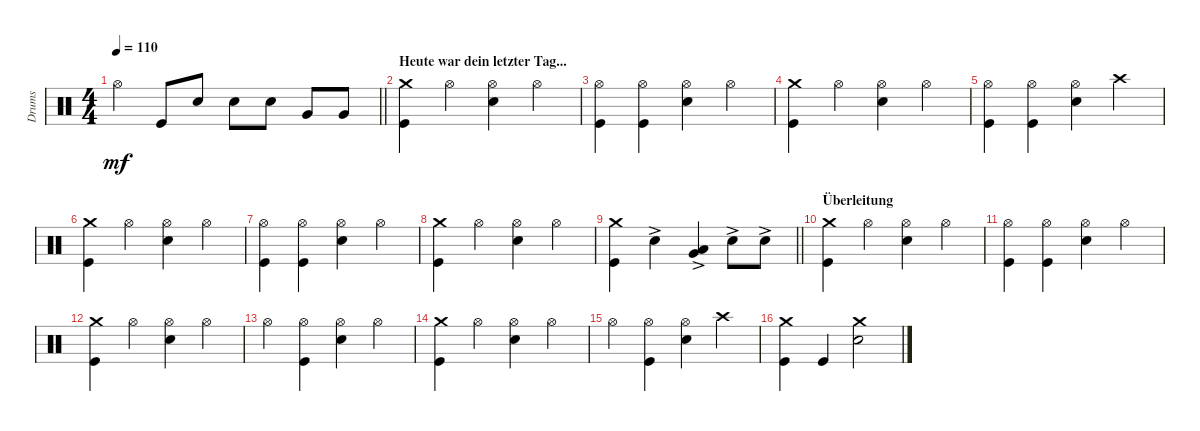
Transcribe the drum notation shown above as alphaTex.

\track ("Drums" "Drums") {instrument percussion}
\staff {score}
\articulation defaults
\ts (4 4)
\tempo 110
\clef neutral
\barLineRight lightlight
\ks c "Hi-Hat (open)".4{dy mf} "Kick (hit)".8 "Snare (hit) 2".8 "Snare (hit) 2".8 "Snare (hit) 2".8 "Very Low Tom (hit)".8 "Very Low Tom (hit)".8
|
\section ("" "Heute war dein letzter Tag...")
("Crash medium (hit)" "Kick (hit)").4 "Hi-Hat (open)".4 ("Hi-Hat (open)" "Snare (hit) 2").4 "Hi-Hat (open)".4 |
("Hi-Hat (open)" "Kick (hit)").4 ("Hi-Hat (open)" "Kick (hit)").4 ("Hi-Hat (open)" "Snare (hit) 2").4 "Hi-Hat (open)".4 |
("Crash medium (hit)" "Kick (hit)").4 "Hi-Hat (open)".4 ("Hi-Hat (open)" "Snare (hit) 2").4 "Hi-Hat (open)".4 |
("Hi-Hat (open)" "Kick (hit)").4 ("Hi-Hat (open)" "Kick (hit)").4 ("Hi-Hat (open)" "Snare (hit) 2").4 "Crash high (hit)".4 |
("Crash medium (hit)" "Kick (hit)").4 "Hi-Hat (open)".4 ("Hi-Hat (open)" "Snare (hit) 2").4 "Hi-Hat (open)".4 |
("Hi-Hat (open)" "Kick (hit)").4 ("Hi-Hat (open)" "Kick (hit)").4 ("Hi-Hat (open)" "Snare (hit) 2").4 "Hi-Hat (open)".4 |
("Crash medium (hit)" "Kick (hit)").4 "Hi-Hat (open)".4 ("Hi-Hat (open)" "Snare (hit) 2").4 "Hi-Hat (open)".4 |
\barLineRight lightlight
("Crash medium (hit)" "Kick (hit)").4 "Snare (hit) 2"{ac}.4 ("Low Tom (hit)"{ac} "Very Low Tom (hit)"{ac}).4 "Snare (hit) 2"{ac}.8 "Snare (hit) 2"{ac}.8 |
\section ("" "Überleitung")
("Crash medium (hit)" "Kick (hit)").4 "Hi-Hat (open)".4 ("Hi-Hat (open)" "Snare (hit) 2").4 "Hi-Hat (open)".4 |
("Hi-Hat (open)" "Kick (hit)").4 ("Hi-Hat (open)" "Kick (hit)").4 ("Hi-Hat (open)" "Snare (hit) 2").4 "Hi-Hat (open)".4 |
("Crash medium (hit)" "Kick (hit)").4 "Hi-Hat (open)".4 ("Hi-Hat (open)" "Snare (hit) 2").4 "Hi-Hat (open)".4 |
"Hi-Hat (open)".4 ("Hi-Hat (open)" "Kick (hit)").4 ("Hi-Hat (open)" "Snare (hit) 2").4 "Hi-Hat (open)".4 |
("Crash medium (hit)" "Kick (hit)").4 "Hi-Hat (open)".4 ("Hi-Hat (open)" "Snare (hit) 2").4 "Hi-Hat (open)".4 |
"Hi-Hat (open)".4 ("Hi-Hat (open)" "Kick (hit)").4 ("Hi-Hat (open)" "Snare (hit) 2").4 "Crash high (hit)".4 |
("Crash medium (hit)" "Kick (hit)").4 "Kick (hit)".4 ("Crash medium (hit)" "Snare (hit) 2").2
